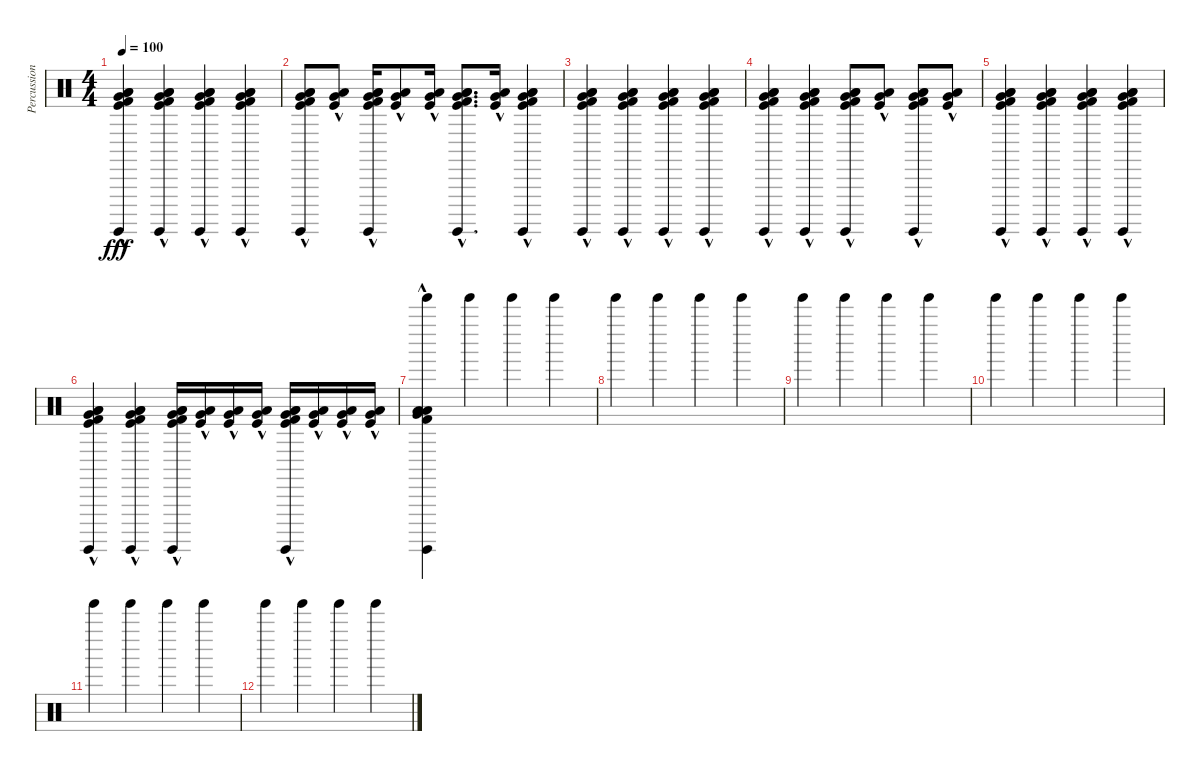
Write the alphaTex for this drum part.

\track ("Percussion" "Percussion") {instrument percussion}
\staff {score}
\articulation defaults
\ts (4 4)
\tempo 100
\clef neutral
\ks c
("Kick (hit)"{hac} "Very Low Tom (hit)"{hac} "Low Tom (hit)"{hac} "Low Floor Tom (hit)"{hac} "Surdo (hit)"{hac} "Kick (hit) 2"{hac}).4{dy fff} ("Kick (hit)"{hac} "Very Low Tom (hit)"{hac} "Low Tom (hit)"{hac} "Low Floor Tom (hit)"{hac} "Surdo (hit)"{hac} "Kick (hit) 2"{hac}).4 ("Kick (hit)"{hac} "Very Low Tom (hit)"{hac} "Low Tom (hit)"{hac} "Low Floor Tom (hit)"{hac} "Surdo (hit)"{hac} "Kick (hit) 2"{hac}).4 ("Kick (hit)"{hac} "Very Low Tom (hit)"{hac} "Low Floor Tom (hit)"{hac} "Low Tom (hit)"{hac} "Surdo (hit)"{hac} "Kick (hit) 2"{hac}).4 |
("Kick (hit)"{hac} "Very Low Tom (hit)"{hac} "Low Tom (hit)"{hac} "Low Floor Tom (hit)"{hac} "Surdo (hit)"{hac} "Kick (hit) 2"{hac}).8 ("Kick (hit)"{hac} "Very Low Tom (hit)"{hac} "Low Tom (hit)"{hac}).8 ("Kick (hit)"{hac} "Very Low Tom (hit)"{hac} "Low Tom (hit)"{hac} "Low Floor Tom (hit)"{hac} "Surdo (hit)"{hac} "Kick (hit) 2"{hac}).16 ("Kick (hit)"{hac} "Very Low Tom (hit)"{hac} "Low Tom (hit)"{hac}).8 ("Kick (hit)"{hac} "Very Low Tom (hit)"{hac} "Low Tom (hit)"{hac}).16 ("Kick (hit)"{hac} "Very Low Tom (hit)"{hac} "Low Tom (hit)"{hac} "Low Floor Tom (hit)"{hac} "Surdo (hit)"{hac} "Kick (hit) 2"{hac}).8{d} ("Kick (hit)"{hac} "Very Low Tom (hit)"{hac} "Low Tom (hit)"{hac}).16 ("Kick (hit)"{hac} "Very Low Tom (hit)"{hac} "Low Tom (hit)"{hac} "Low Floor Tom (hit)"{hac} "Surdo (hit)"{hac} "Kick (hit) 2"{hac}).4 |
("Kick (hit)"{hac} "Very Low Tom (hit)"{hac} "Low Tom (hit)"{hac} "Low Floor Tom (hit)"{hac} "Surdo (hit)"{hac} "Kick (hit) 2"{hac}).4 ("Kick (hit)"{hac} "Very Low Tom (hit)"{hac} "Low Tom (hit)"{hac} "Low Floor Tom (hit)"{hac} "Surdo (hit)"{hac} "Kick (hit) 2"{hac}).4 ("Kick (hit)"{hac} "Very Low Tom (hit)"{hac} "Low Tom (hit)"{hac} "Low Floor Tom (hit)"{hac} "Surdo (hit)"{hac} "Kick (hit) 2"{hac}).4 ("Kick (hit)"{hac} "Very Low Tom (hit)"{hac} "Low Floor Tom (hit)"{hac} "Low Tom (hit)"{hac} "Surdo (hit)"{hac} "Kick (hit) 2"{hac}).4 |
("Kick (hit)"{hac} "Very Low Tom (hit)"{hac} "Low Tom (hit)"{hac} "Low Floor Tom (hit)"{hac} "Surdo (hit)"{hac} "Kick (hit) 2"{hac}).4 ("Kick (hit)"{hac} "Very Low Tom (hit)"{hac} "Low Tom (hit)"{hac} "Low Floor Tom (hit)"{hac} "Surdo (hit)"{hac} "Kick (hit) 2"{hac}).4 ("Kick (hit)"{hac} "Very Low Tom (hit)"{hac} "Low Tom (hit)"{hac} "Low Floor Tom (hit)"{hac} "Surdo (hit)"{hac} "Kick (hit) 2"{hac}).8 ("Kick (hit)"{hac} "Very Low Tom (hit)"{hac} "Low Floor Tom (hit)"{hac}).8 ("Kick (hit)"{hac} "Very Low Tom (hit)"{hac} "Low Tom (hit)"{hac} "Low Floor Tom (hit)"{hac} "Surdo (hit)"{hac} "Kick (hit) 2"{hac}).8 ("Kick (hit)"{hac} "Very Low Tom (hit)"{hac} "Low Floor Tom (hit)"{hac}).8 |
("Kick (hit)"{hac} "Very Low Tom (hit)"{hac} "Low Tom (hit)"{hac} "Low Floor Tom (hit)"{hac} "Surdo (hit)"{hac} "Kick (hit) 2"{hac}).4 ("Kick (hit)"{hac} "Very Low Tom (hit)"{hac} "Low Tom (hit)"{hac} "Low Floor Tom (hit)"{hac} "Surdo (hit)"{hac} "Kick (hit) 2"{hac}).4 ("Kick (hit)"{hac} "Very Low Tom (hit)"{hac} "Low Tom (hit)"{hac} "Low Floor Tom (hit)"{hac} "Surdo (hit)"{hac} "Kick (hit) 2"{hac}).4 ("Kick (hit)"{hac} "Very Low Tom (hit)"{hac} "Low Floor Tom (hit)"{hac} "Low Tom (hit)"{hac} "Surdo (hit)"{hac} "Kick (hit) 2"{hac}).4 |
("Kick (hit)"{hac} "Very Low Tom (hit)"{hac} "Low Tom (hit)"{hac} "Low Floor Tom (hit)"{hac} "Surdo (hit)"{hac} "Kick (hit) 2"{hac}).4 ("Kick (hit)"{hac} "Very Low Tom (hit)"{hac} "Low Tom (hit)"{hac} "Low Floor Tom (hit)"{hac} "Surdo (hit)"{hac} "Kick (hit) 2"{hac}).4 ("Kick (hit)"{hac} "Very Low Tom (hit)"{hac} "Low Tom (hit)"{hac} "Low Floor Tom (hit)"{hac} "Surdo (hit)"{hac} "Kick (hit) 2"{hac}).16 ("Kick (hit)"{hac} "Very Low Tom (hit)"{hac} "Low Tom (hit)"{hac}).16 ("Kick (hit)"{hac} "Very Low Tom (hit)"{hac} "Low Tom (hit)"{hac}).16 ("Kick (hit)"{hac} "Very Low Tom (hit)"{hac} "Low Tom (hit)"{hac}).16 ("Kick (hit)"{hac} "Very Low Tom (hit)"{hac} "Low Tom (hit)"{hac} "Low Floor Tom (hit)"{hac} "Surdo (hit)"{hac} "Kick (hit) 2"{hac}).16 ("Kick (hit)"{hac} "Very Low Tom (hit)"{hac} "Low Tom (hit)"{hac}).16 ("Kick (hit)"{hac} "Very Low Tom (hit)"{hac} "Low Tom (hit)"{hac}).16 ("Kick (hit)"{hac} "Very Low Tom (hit)"{hac} "Low Tom (hit)"{hac}).16 |
("Tinkle Bell (hit)"{hac} "Very Low Tom (hit)"{hac} "Low Tom (hit)"{hac} "Low Floor Tom (hit)"{hac} "Surdo (hit)"{hac} "Kick (hit) 2"{hac}).4 "Tinkle Bell (hit)".4 "Tinkle Bell (hit)".4 "Tinkle Bell (hit)".4 |
"Tinkle Bell (hit)".4 "Tinkle Bell (hit)".4 "Tinkle Bell (hit)".4 "Tinkle Bell (hit)".4 |
"Tinkle Bell (hit)".4 "Tinkle Bell (hit)".4 "Tinkle Bell (hit)".4 "Tinkle Bell (hit)".4 |
"Tinkle Bell (hit)".4 "Tinkle Bell (hit)".4 "Tinkle Bell (hit)".4 "Tinkle Bell (hit)".4 |
"Tinkle Bell (hit)".4 "Tinkle Bell (hit)".4 "Tinkle Bell (hit)".4 "Tinkle Bell (hit)".4 |
"Tinkle Bell (hit)".4 "Tinkle Bell (hit)".4 "Tinkle Bell (hit)".4 "Tinkle Bell (hit)".4
